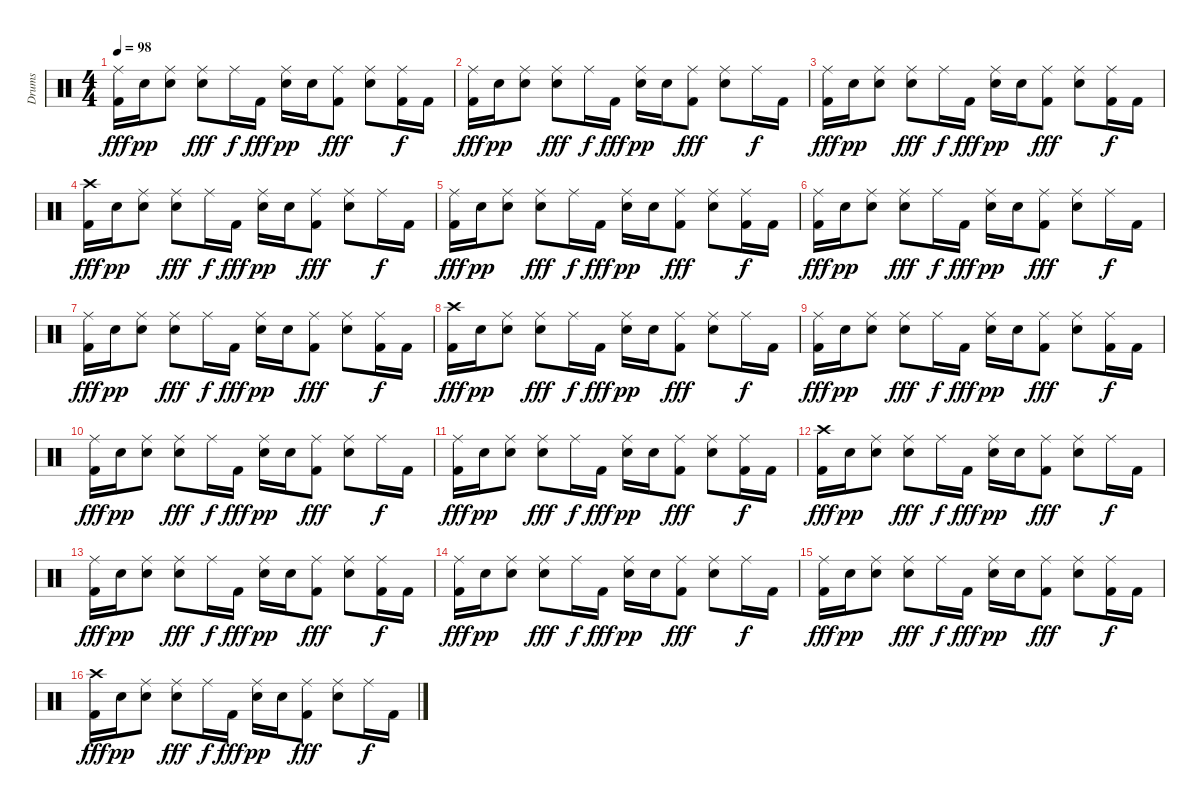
\track ("Drums" "Drums") {instrument percussion}
\staff {score}
\articulation defaults
\ts (4 4)
\tempo 98
\clef neutral
\ks c
("Kick (hit) 2" "Ride (middle)").16{dy fff} "Electric Snare (hit)".16{dy pp} ("Ride (middle)" "Electric Snare (hit)").8 ("Snare (hit) 2" "Ride (middle)").8{dy fff} "Ride (middle)".16{dy f} "Kick (hit) 2".16{dy fff} ("Ride (middle)" "Electric Snare (hit)").16{dy pp} "Electric Snare (hit)".16 ("Kick (hit) 2" "Ride (middle)").8{dy fff} ("Snare (hit) 2" "Ride (middle)").8 ("Kick (hit) 2" "Ride (middle)").16{dy f} "Kick (hit) 2".16 |
("Kick (hit) 2" "Ride (middle)").16{dy fff} "Electric Snare (hit)".16{dy pp} ("Ride (middle)" "Electric Snare (hit)").8 ("Snare (hit) 2" "Ride (middle)").8{dy fff} "Ride (middle)".16{dy f} "Kick (hit) 2".16{dy fff} ("Ride (middle)" "Electric Snare (hit)").16{dy pp} "Electric Snare (hit)".16 ("Kick (hit) 2" "Ride (middle)").8{dy fff} ("Snare (hit) 2" "Ride (middle)").8 "Ride (middle)".16{dy f} "Kick (hit) 2".16 |
("Kick (hit) 2" "Ride (middle)").16{dy fff} "Electric Snare (hit)".16{dy pp} ("Ride (middle)" "Electric Snare (hit)").8 ("Snare (hit) 2" "Ride (middle)").8{dy fff} "Ride (middle)".16{dy f} "Kick (hit) 2".16{dy fff} ("Ride (middle)" "Electric Snare (hit)").16{dy pp} "Electric Snare (hit)".16 ("Kick (hit) 2" "Ride (middle)").8{dy fff} ("Snare (hit) 2" "Ride (middle)").8 ("Kick (hit) 2" "Ride (middle)").16{dy f} "Kick (hit) 2".16 |
("Kick (hit) 2" "Crash high (hit)").16{dy fff} "Electric Snare (hit)".16{dy pp} ("Ride (middle)" "Electric Snare (hit)").8 ("Snare (hit) 2" "Ride (middle)").8{dy fff} "Ride (middle)".16{dy f} "Kick (hit) 2".16{dy fff} ("Ride (middle)" "Electric Snare (hit)").16{dy pp} "Electric Snare (hit)".16 ("Kick (hit) 2" "Ride (middle)").8{dy fff} ("Snare (hit) 2" "Ride (middle)").8 "Ride (middle)".16{dy f} "Kick (hit) 2".16 |
("Kick (hit) 2" "Ride (middle)").16{dy fff} "Electric Snare (hit)".16{dy pp} ("Ride (middle)" "Electric Snare (hit)").8 ("Snare (hit) 2" "Ride (middle)").8{dy fff} "Ride (middle)".16{dy f} "Kick (hit) 2".16{dy fff} ("Ride (middle)" "Electric Snare (hit)").16{dy pp} "Electric Snare (hit)".16 ("Kick (hit) 2" "Ride (middle)").8{dy fff} ("Snare (hit) 2" "Ride (middle)").8 ("Kick (hit) 2" "Ride (middle)").16{dy f} "Kick (hit) 2".16 |
("Kick (hit) 2" "Ride (middle)").16{dy fff} "Electric Snare (hit)".16{dy pp} ("Ride (middle)" "Electric Snare (hit)").8 ("Snare (hit) 2" "Ride (middle)").8{dy fff} "Ride (middle)".16{dy f} "Kick (hit) 2".16{dy fff} ("Ride (middle)" "Electric Snare (hit)").16{dy pp} "Electric Snare (hit)".16 ("Kick (hit) 2" "Ride (middle)").8{dy fff} ("Snare (hit) 2" "Ride (middle)").8 "Ride (middle)".16{dy f} "Kick (hit) 2".16 |
("Kick (hit) 2" "Ride (middle)").16{dy fff} "Electric Snare (hit)".16{dy pp} ("Ride (middle)" "Electric Snare (hit)").8 ("Snare (hit) 2" "Ride (middle)").8{dy fff} "Ride (middle)".16{dy f} "Kick (hit) 2".16{dy fff} ("Ride (middle)" "Electric Snare (hit)").16{dy pp} "Electric Snare (hit)".16 ("Kick (hit) 2" "Ride (middle)").8{dy fff} ("Snare (hit) 2" "Ride (middle)").8 ("Kick (hit) 2" "Ride (middle)").16{dy f} "Kick (hit) 2".16 |
("Kick (hit) 2" "Crash high (hit)").16{dy fff} "Electric Snare (hit)".16{dy pp} ("Ride (middle)" "Electric Snare (hit)").8 ("Snare (hit) 2" "Ride (middle)").8{dy fff} "Ride (middle)".16{dy f} "Kick (hit) 2".16{dy fff} ("Ride (middle)" "Electric Snare (hit)").16{dy pp} "Electric Snare (hit)".16 ("Kick (hit) 2" "Ride (middle)").8{dy fff} ("Snare (hit) 2" "Ride (middle)").8 "Ride (middle)".16{dy f} "Kick (hit) 2".16 |
("Kick (hit) 2" "Ride (middle)").16{dy fff} "Electric Snare (hit)".16{dy pp} ("Ride (middle)" "Electric Snare (hit)").8 ("Snare (hit) 2" "Ride (middle)").8{dy fff} "Ride (middle)".16{dy f} "Kick (hit) 2".16{dy fff} ("Ride (middle)" "Electric Snare (hit)").16{dy pp} "Electric Snare (hit)".16 ("Kick (hit) 2" "Ride (middle)").8{dy fff} ("Snare (hit) 2" "Ride (middle)").8 ("Kick (hit) 2" "Ride (middle)").16{dy f} "Kick (hit) 2".16 |
("Kick (hit) 2" "Ride (middle)").16{dy fff} "Electric Snare (hit)".16{dy pp} ("Ride (middle)" "Electric Snare (hit)").8 ("Snare (hit) 2" "Ride (middle)").8{dy fff} "Ride (middle)".16{dy f} "Kick (hit) 2".16{dy fff} ("Ride (middle)" "Electric Snare (hit)").16{dy pp} "Electric Snare (hit)".16 ("Kick (hit) 2" "Ride (middle)").8{dy fff} ("Snare (hit) 2" "Ride (middle)").8 "Ride (middle)".16{dy f} "Kick (hit) 2".16 |
("Kick (hit) 2" "Ride (middle)").16{dy fff} "Electric Snare (hit)".16{dy pp} ("Ride (middle)" "Electric Snare (hit)").8 ("Snare (hit) 2" "Ride (middle)").8{dy fff} "Ride (middle)".16{dy f} "Kick (hit) 2".16{dy fff} ("Ride (middle)" "Electric Snare (hit)").16{dy pp} "Electric Snare (hit)".16 ("Kick (hit) 2" "Ride (middle)").8{dy fff} ("Snare (hit) 2" "Ride (middle)").8 ("Kick (hit) 2" "Ride (middle)").16{dy f} "Kick (hit) 2".16 |
("Kick (hit) 2" "Crash high (hit)").16{dy fff} "Electric Snare (hit)".16{dy pp} ("Ride (middle)" "Electric Snare (hit)").8 ("Snare (hit) 2" "Ride (middle)").8{dy fff} "Ride (middle)".16{dy f} "Kick (hit) 2".16{dy fff} ("Ride (middle)" "Electric Snare (hit)").16{dy pp} "Electric Snare (hit)".16 ("Kick (hit) 2" "Ride (middle)").8{dy fff} ("Snare (hit) 2" "Ride (middle)").8 "Ride (middle)".16{dy f} "Kick (hit) 2".16 |
("Kick (hit) 2" "Ride (middle)").16{dy fff} "Electric Snare (hit)".16{dy pp} ("Ride (middle)" "Electric Snare (hit)").8 ("Snare (hit) 2" "Ride (middle)").8{dy fff} "Ride (middle)".16{dy f} "Kick (hit) 2".16{dy fff} ("Ride (middle)" "Electric Snare (hit)").16{dy pp} "Electric Snare (hit)".16 ("Kick (hit) 2" "Ride (middle)").8{dy fff} ("Snare (hit) 2" "Ride (middle)").8 ("Kick (hit) 2" "Ride (middle)").16{dy f} "Kick (hit) 2".16 |
("Kick (hit) 2" "Ride (middle)").16{dy fff} "Electric Snare (hit)".16{dy pp} ("Ride (middle)" "Electric Snare (hit)").8 ("Snare (hit) 2" "Ride (middle)").8{dy fff} "Ride (middle)".16{dy f} "Kick (hit) 2".16{dy fff} ("Ride (middle)" "Electric Snare (hit)").16{dy pp} "Electric Snare (hit)".16 ("Kick (hit) 2" "Ride (middle)").8{dy fff} ("Snare (hit) 2" "Ride (middle)").8 "Ride (middle)".16{dy f} "Kick (hit) 2".16 |
("Kick (hit) 2" "Ride (middle)").16{dy fff} "Electric Snare (hit)".16{dy pp} ("Ride (middle)" "Electric Snare (hit)").8 ("Snare (hit) 2" "Ride (middle)").8{dy fff} "Ride (middle)".16{dy f} "Kick (hit) 2".16{dy fff} ("Ride (middle)" "Electric Snare (hit)").16{dy pp} "Electric Snare (hit)".16 ("Kick (hit) 2" "Ride (middle)").8{dy fff} ("Snare (hit) 2" "Ride (middle)").8 ("Kick (hit) 2" "Ride (middle)").16{dy f} "Kick (hit) 2".16 |
("Kick (hit) 2" "Crash high (hit)").16{dy fff} "Electric Snare (hit)".16{dy pp} ("Ride (middle)" "Electric Snare (hit)").8 ("Snare (hit) 2" "Ride (middle)").8{dy fff} "Ride (middle)".16{dy f} "Kick (hit) 2".16{dy fff} ("Ride (middle)" "Electric Snare (hit)").16{dy pp} "Electric Snare (hit)".16 ("Kick (hit) 2" "Ride (middle)").8{dy fff} ("Snare (hit) 2" "Ride (middle)").8 "Ride (middle)".16{dy f} "Kick (hit) 2".16
